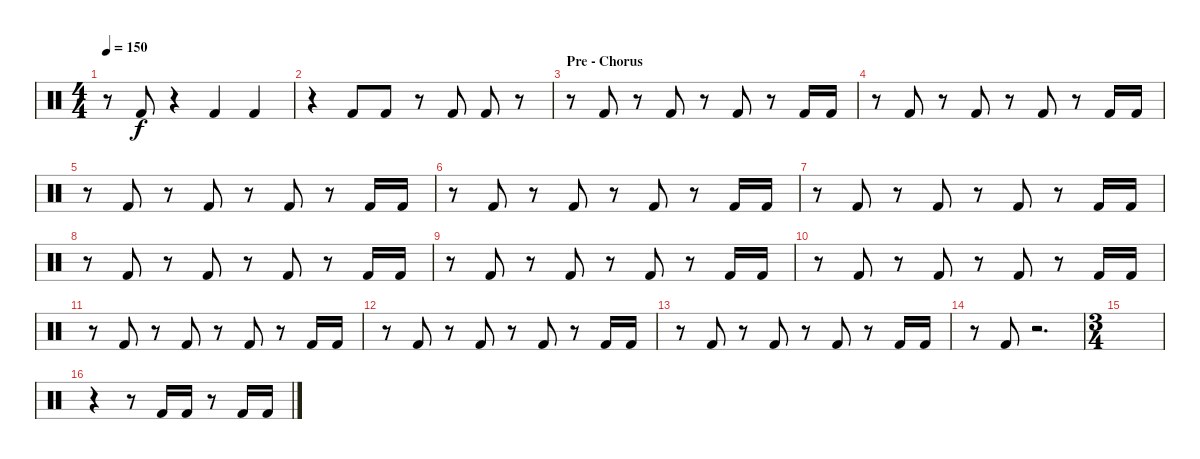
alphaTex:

\track "" {instrument percussion}
\staff {score}
\articulation defaults
\ts (4 4)
\tempo 150
\clef neutral
\ks c
r.8{dy f} "Kick (hit) 2".8 r.4 "Kick (hit) 2".4 "Kick (hit) 2".4 |
r.4 "Kick (hit) 2".8 "Kick (hit) 2".8 r.8 "Kick (hit) 2".8 "Kick (hit) 2".8 r.8 |
\section ("" "Pre - Chorus")
r.8 "Kick (hit) 2".8 r.8 "Kick (hit) 2".8 r.8 "Kick (hit) 2".8 r.8 "Kick (hit) 2".16 "Kick (hit) 2".16 |
r.8 "Kick (hit) 2".8 r.8 "Kick (hit) 2".8 r.8 "Kick (hit) 2".8 r.8 "Kick (hit) 2".16 "Kick (hit) 2".16 |
r.8 "Kick (hit) 2".8 r.8 "Kick (hit) 2".8 r.8 "Kick (hit) 2".8 r.8 "Kick (hit) 2".16 "Kick (hit) 2".16 |
r.8 "Kick (hit) 2".8 r.8 "Kick (hit) 2".8 r.8 "Kick (hit) 2".8 r.8 "Kick (hit) 2".16 "Kick (hit) 2".16 |
r.8 "Kick (hit) 2".8 r.8 "Kick (hit) 2".8 r.8 "Kick (hit) 2".8 r.8 "Kick (hit) 2".16 "Kick (hit) 2".16 |
r.8 "Kick (hit) 2".8 r.8 "Kick (hit) 2".8 r.8 "Kick (hit) 2".8 r.8 "Kick (hit) 2".16 "Kick (hit) 2".16 |
r.8 "Kick (hit) 2".8 r.8 "Kick (hit) 2".8 r.8 "Kick (hit) 2".8 r.8 "Kick (hit) 2".16 "Kick (hit) 2".16 |
r.8 "Kick (hit) 2".8 r.8 "Kick (hit) 2".8 r.8 "Kick (hit) 2".8 r.8 "Kick (hit) 2".16 "Kick (hit) 2".16 |
r.8 "Kick (hit) 2".8 r.8 "Kick (hit) 2".8 r.8 "Kick (hit) 2".8 r.8 "Kick (hit) 2".16 "Kick (hit) 2".16 |
r.8 "Kick (hit) 2".8 r.8 "Kick (hit) 2".8 r.8 "Kick (hit) 2".8 r.8 "Kick (hit) 2".16 "Kick (hit) 2".16 |
r.8 "Kick (hit) 2".8 r.8 "Kick (hit) 2".8 r.8 "Kick (hit) 2".8 r.8 "Kick (hit) 2".16 "Kick (hit) 2".16 |
r.8 "Kick (hit) 2".8 r.2{d} |
\ts (3 4)
|
r.4 r.8 "Kick (hit) 2".16 "Kick (hit) 2".16 r.8 "Kick (hit) 2".16 "Kick (hit) 2".16
